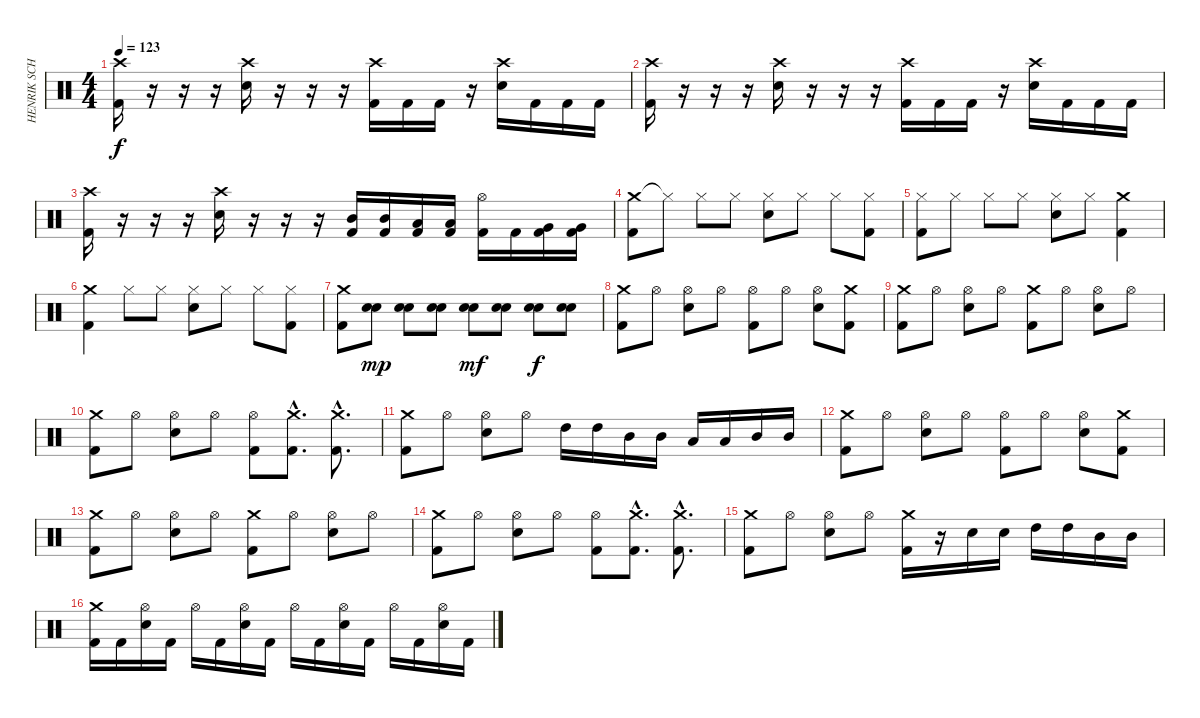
\track ("HENRIK SCHÖNSTÖM " "HENRIK SCH") {instrument percussion}
\staff {score}
\articulation defaults
\ts (4 4)
\tempo 123
\clef neutral
\ks c
("Crash high (hit)" "Kick (hit) 2").16{dy f} r.16 r.16 r.16 ("Crash high (hit)" "Snare (hit) 2").16 r.16 r.16 r.16 ("Crash high (hit)" "Kick (hit) 2").16 "Kick (hit) 2".16 "Kick (hit) 2".16 r.16 ("Crash high (hit)" "Snare (hit) 2").16 "Kick (hit) 2".16 "Kick (hit) 2".16 "Kick (hit) 2".16 |
("Crash high (hit)" "Kick (hit) 2").16 r.16 r.16 r.16 ("Crash high (hit)" "Snare (hit) 2").16 r.16 r.16 r.16 ("Crash high (hit)" "Kick (hit) 2").16 "Kick (hit) 2".16 "Kick (hit) 2".16 r.16 ("Crash high (hit)" "Snare (hit) 2").16 "Kick (hit) 2".16 "Kick (hit) 2".16 "Kick (hit) 2".16 |
("Crash high (hit)" "Kick (hit) 2").16 r.16 r.16 r.16 ("Crash high (hit)" "Snare (hit) 2").16 r.16 r.16 r.16 ("Mid Tom (hit)" "Kick (hit) 2").16 ("Mid Tom (hit)" "Kick (hit) 2").16 ("Low Tom (hit)" "Kick (hit) 2").16 ("Low Tom (hit)" "Kick (hit) 2").16 ("Hi-Hat (open)" "Kick (hit) 2").16 "Kick (hit) 2".16 ("Very Low Tom (hit)" "Kick (hit) 2").16 ("Very Low Tom (hit)" "Kick (hit) 2").16 |
("Crash medium (hit)" "Kick (hit) 2").8 "Hi-Hat (closed)"{t}.8 "Hi-Hat (closed)".8 "Hi-Hat (closed)".8 ("Hi-Hat (closed)" "Snare (hit) 2").8 "Hi-Hat (closed)".8 "Hi-Hat (closed)".8 ("Hi-Hat (closed)" "Kick (hit) 2").8 |
("Hi-Hat (closed)" "Kick (hit) 2").8 "Hi-Hat (closed)".8 "Hi-Hat (closed)".8 "Hi-Hat (closed)".8 ("Hi-Hat (closed)" "Snare (hit) 2").8 "Hi-Hat (closed)".8 ("Crash medium (hit)" "Kick (hit) 2").4 |
("Crash medium (hit)" "Kick (hit) 2").4 "Hi-Hat (closed)".8 "Hi-Hat (closed)".8 ("Hi-Hat (closed)" "Snare (hit) 2").8 "Hi-Hat (closed)".8 "Hi-Hat (closed)".8 ("Hi-Hat (closed)" "Kick (hit) 2").8 |
("Crash medium (hit)" "Kick (hit) 2").8 ("Snare (hit) 2" "Snare (hit) 2").8{dy mp} ("Snare (hit) 2" "Snare (hit) 2").8 ("Snare (hit) 2" "Snare (hit) 2").8 ("Snare (hit) 2" "Snare (hit) 2").8{dy mf} ("Snare (hit) 2" "Snare (hit) 2").8 ("Snare (hit) 2" "Snare (hit) 2").8{dy f} ("Snare (hit) 2" "Snare (hit) 2").8 |
("Crash medium (hit)" "Kick (hit) 2").8 "Hi-Hat (open)".8 ("Hi-Hat (open)" "Snare (hit) 2").8 "Hi-Hat (open)".8 ("Hi-Hat (open)" "Kick (hit) 2").8 "Hi-Hat (open)".8 ("Hi-Hat (open)" "Snare (hit) 2").8 ("Crash medium (hit)" "Kick (hit) 2").8 |
("Crash medium (hit)" "Kick (hit) 2").8 "Hi-Hat (open)".8 ("Hi-Hat (open)" "Snare (hit) 2").8 "Hi-Hat (open)".8 ("Crash medium (hit)" "Kick (hit) 2").8 "Hi-Hat (open)".8 ("Hi-Hat (open)" "Snare (hit) 2").8 "Hi-Hat (open)".8 |
("Crash medium (hit)" "Kick (hit) 2").8 "Hi-Hat (open)".8 ("Hi-Hat (open)" "Snare (hit) 2").8 "Hi-Hat (open)".8 ("Hi-Hat (open)" "Kick (hit) 2").8 ("Crash medium (hit)"{hac} "Kick (hit) 2"{hac}).8{d} ("Crash medium (hit)"{hac} "Kick (hit) 2"{hac}).8{d} |
("Crash medium (hit)" "Kick (hit) 2").8 "Hi-Hat (open)".8 ("Hi-Hat (open)" "Snare (hit) 2").8 "Hi-Hat (open)".8 "High Tom (hit)".16 "High Tom (hit)".16 "Mid Tom (hit)".16 "Mid Tom (hit)".16 "Low Tom (hit)".16 "Low Tom (hit)".16 "Mid Tom (hit)".16 "Mid Tom (hit)".16 |
("Crash medium (hit)" "Kick (hit) 2").8 "Hi-Hat (open)".8 ("Hi-Hat (open)" "Snare (hit) 2").8 "Hi-Hat (open)".8 ("Hi-Hat (open)" "Kick (hit) 2").8 "Hi-Hat (open)".8 ("Hi-Hat (open)" "Snare (hit) 2").8 ("Crash medium (hit)" "Kick (hit) 2").8 |
("Crash medium (hit)" "Kick (hit) 2").8 "Hi-Hat (open)".8 ("Hi-Hat (open)" "Snare (hit) 2").8 "Hi-Hat (open)".8 ("Crash medium (hit)" "Kick (hit) 2").8 "Hi-Hat (open)".8 ("Hi-Hat (open)" "Snare (hit) 2").8 "Hi-Hat (open)".8 |
("Crash medium (hit)" "Kick (hit) 2").8 "Hi-Hat (open)".8 ("Hi-Hat (open)" "Snare (hit) 2").8 "Hi-Hat (open)".8 ("Hi-Hat (open)" "Kick (hit) 2").8 ("Crash medium (hit)"{hac} "Kick (hit) 2"{hac}).8{d} ("Crash medium (hit)"{hac} "Kick (hit) 2"{hac}).8{d} |
("Crash medium (hit)" "Kick (hit) 2").8 "Hi-Hat (open)".8 ("Hi-Hat (open)" "Snare (hit) 2").8 "Hi-Hat (open)".8 ("Crash medium (hit)" "Kick (hit) 2").16 r.16 "Snare (hit) 2".16 "Snare (hit) 2".16 "High Tom (hit)".16 "High Tom (hit)".16 "Mid Tom (hit)".16 "Mid Tom (hit)".16 |
("Crash medium (hit)" "Kick (hit) 2").16 "Kick (hit) 2".16 ("Hi-Hat (open)" "Snare (hit) 2").16 "Kick (hit) 2".16 "Hi-Hat (open)".16 "Kick (hit) 2".16 ("Hi-Hat (open)" "Snare (hit) 2").16 "Kick (hit) 2".16 "Hi-Hat (open)".16 "Kick (hit) 2".16 ("Hi-Hat (open)" "Snare (hit) 2").16 "Kick (hit) 2".16 "Hi-Hat (open)".16 "Kick (hit) 2".16 ("Hi-Hat (open)" "Snare (hit) 2").16 "Kick (hit) 2".16
